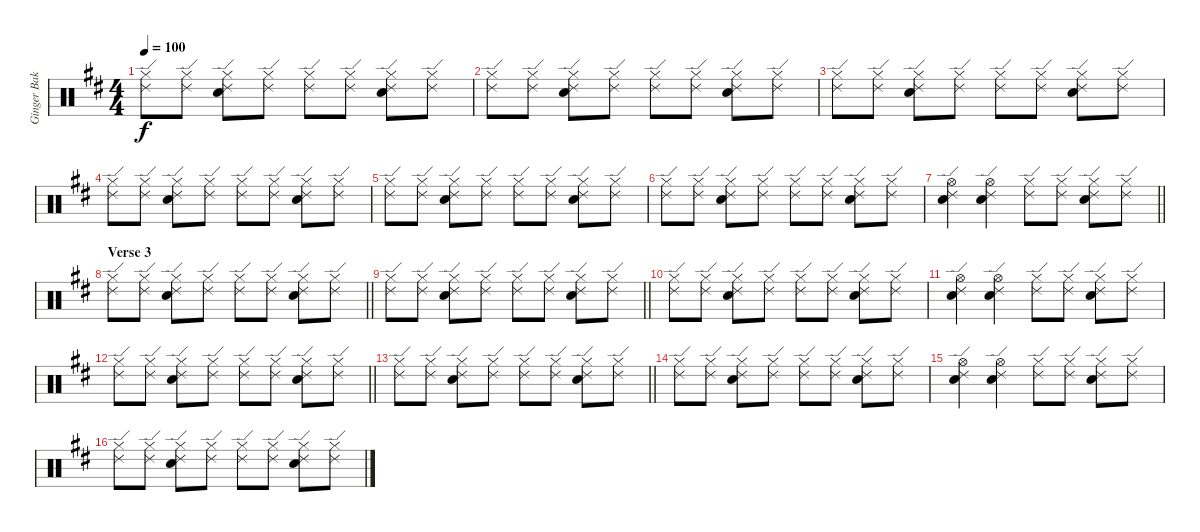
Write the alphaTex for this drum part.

\track ("Ginger Baker" "Ginger Bak") {instrument percussion}
\staff {score}
\articulation defaults
\ts (4 4)
\tempo 100
\clef neutral
\ks d
("Hi-Hat (closed)" "Ride (edge) 2").8{dy f} ("Hi-Hat (closed)" "Ride (edge) 2").8 ("Hi-Hat (closed)" "Ride (edge) 2" "Electric Snare (hit)").8 ("Hi-Hat (closed)" "Ride (edge) 2").8 ("Hi-Hat (closed)" "Ride (edge) 2").8 ("Hi-Hat (closed)" "Ride (edge) 2").8 ("Hi-Hat (closed)" "Ride (edge) 2" "Electric Snare (hit)").8 ("Hi-Hat (closed)" "Ride (edge) 2").8 |
("Hi-Hat (closed)" "Ride (edge) 2").8 ("Hi-Hat (closed)" "Ride (edge) 2").8 ("Hi-Hat (closed)" "Ride (edge) 2" "Electric Snare (hit)").8 ("Hi-Hat (closed)" "Ride (edge) 2").8 ("Hi-Hat (closed)" "Ride (edge) 2").8 ("Hi-Hat (closed)" "Ride (edge) 2").8 ("Hi-Hat (closed)" "Ride (edge) 2" "Electric Snare (hit)").8 ("Hi-Hat (closed)" "Ride (edge) 2").8 |
("Hi-Hat (closed)" "Ride (edge) 2").8 ("Hi-Hat (closed)" "Ride (edge) 2").8 ("Hi-Hat (closed)" "Ride (edge) 2" "Electric Snare (hit)").8 ("Hi-Hat (closed)" "Ride (edge) 2").8 ("Hi-Hat (closed)" "Ride (edge) 2").8 ("Hi-Hat (closed)" "Ride (edge) 2").8 ("Hi-Hat (closed)" "Ride (edge) 2" "Electric Snare (hit)").8 ("Hi-Hat (closed)" "Ride (edge) 2").8 |
("Hi-Hat (closed)" "Ride (edge) 2").8 ("Hi-Hat (closed)" "Ride (edge) 2").8 ("Hi-Hat (closed)" "Ride (edge) 2" "Electric Snare (hit)").8 ("Hi-Hat (closed)" "Ride (edge) 2").8 ("Hi-Hat (closed)" "Ride (edge) 2").8 ("Hi-Hat (closed)" "Ride (edge) 2").8 ("Hi-Hat (closed)" "Ride (edge) 2" "Electric Snare (hit)").8 ("Hi-Hat (closed)" "Ride (edge) 2").8 |
("Hi-Hat (closed)" "Ride (edge) 2").8 ("Hi-Hat (closed)" "Ride (edge) 2").8 ("Hi-Hat (closed)" "Ride (edge) 2" "Electric Snare (hit)").8 ("Hi-Hat (closed)" "Ride (edge) 2").8 ("Hi-Hat (closed)" "Ride (edge) 2").8 ("Hi-Hat (closed)" "Ride (edge) 2").8 ("Hi-Hat (closed)" "Ride (edge) 2" "Electric Snare (hit)").8 ("Hi-Hat (closed)" "Ride (edge) 2").8 |
("Hi-Hat (closed)" "Ride (edge) 2").8 ("Hi-Hat (closed)" "Ride (edge) 2").8 ("Hi-Hat (closed)" "Ride (edge) 2" "Electric Snare (hit)").8 ("Hi-Hat (closed)" "Ride (edge) 2").8 ("Hi-Hat (closed)" "Ride (edge) 2").8 ("Hi-Hat (closed)" "Ride (edge) 2").8 ("Hi-Hat (closed)" "Ride (edge) 2" "Electric Snare (hit)").8 ("Hi-Hat (closed)" "Ride (edge) 2").8 |
\barLineRight lightlight
("Hi-Hat (open)" "Ride (edge) 2" "Electric Snare (hit)").4 ("Hi-Hat (open)" "Ride (edge) 2" "Electric Snare (hit)").4 ("Hi-Hat (closed)" "Ride (edge) 2").8 ("Hi-Hat (closed)" "Ride (edge) 2").8 ("Hi-Hat (closed)" "Ride (edge) 2" "Electric Snare (hit)").8 ("Hi-Hat (closed)" "Ride (edge) 2").8 |
\section ("" "Verse 3")
\barLineRight lightlight
("Hi-Hat (closed)" "Ride (edge) 2").8 ("Hi-Hat (closed)" "Ride (edge) 2").8 ("Hi-Hat (closed)" "Ride (edge) 2" "Electric Snare (hit)").8 ("Hi-Hat (closed)" "Ride (edge) 2").8 ("Hi-Hat (closed)" "Ride (edge) 2").8 ("Hi-Hat (closed)" "Ride (edge) 2").8 ("Hi-Hat (closed)" "Ride (edge) 2" "Electric Snare (hit)").8 ("Hi-Hat (closed)" "Ride (edge) 2").8 |
\barLineRight lightlight
("Hi-Hat (closed)" "Ride (edge) 2").8 ("Hi-Hat (closed)" "Ride (edge) 2").8 ("Hi-Hat (closed)" "Ride (edge) 2" "Electric Snare (hit)").8 ("Hi-Hat (closed)" "Ride (edge) 2").8 ("Hi-Hat (closed)" "Ride (edge) 2").8 ("Hi-Hat (closed)" "Ride (edge) 2").8 ("Hi-Hat (closed)" "Ride (edge) 2" "Electric Snare (hit)").8 ("Hi-Hat (closed)" "Ride (edge) 2").8 |
("Hi-Hat (closed)" "Ride (edge) 2").8 ("Hi-Hat (closed)" "Ride (edge) 2").8 ("Hi-Hat (closed)" "Ride (edge) 2" "Electric Snare (hit)").8 ("Hi-Hat (closed)" "Ride (edge) 2").8 ("Hi-Hat (closed)" "Ride (edge) 2").8 ("Hi-Hat (closed)" "Ride (edge) 2").8 ("Hi-Hat (closed)" "Ride (edge) 2" "Electric Snare (hit)").8 ("Hi-Hat (closed)" "Ride (edge) 2").8 |
("Hi-Hat (open)" "Ride (edge) 2" "Electric Snare (hit)").4 ("Hi-Hat (open)" "Ride (edge) 2" "Electric Snare (hit)").4 ("Hi-Hat (closed)" "Ride (edge) 2").8 ("Hi-Hat (closed)" "Ride (edge) 2").8 ("Hi-Hat (closed)" "Ride (edge) 2" "Electric Snare (hit)").8 ("Hi-Hat (closed)" "Ride (edge) 2").8 |
\barLineRight lightlight
("Hi-Hat (closed)" "Ride (edge) 2").8 ("Hi-Hat (closed)" "Ride (edge) 2").8 ("Hi-Hat (closed)" "Ride (edge) 2" "Electric Snare (hit)").8 ("Hi-Hat (closed)" "Ride (edge) 2").8 ("Hi-Hat (closed)" "Ride (edge) 2").8 ("Hi-Hat (closed)" "Ride (edge) 2").8 ("Hi-Hat (closed)" "Ride (edge) 2" "Electric Snare (hit)").8 ("Hi-Hat (closed)" "Ride (edge) 2").8 |
\barLineRight lightlight
("Hi-Hat (closed)" "Ride (edge) 2").8 ("Hi-Hat (closed)" "Ride (edge) 2").8 ("Hi-Hat (closed)" "Ride (edge) 2" "Electric Snare (hit)").8 ("Hi-Hat (closed)" "Ride (edge) 2").8 ("Hi-Hat (closed)" "Ride (edge) 2").8 ("Hi-Hat (closed)" "Ride (edge) 2").8 ("Hi-Hat (closed)" "Ride (edge) 2" "Electric Snare (hit)").8 ("Hi-Hat (closed)" "Ride (edge) 2").8 |
("Hi-Hat (closed)" "Ride (edge) 2").8 ("Hi-Hat (closed)" "Ride (edge) 2").8 ("Hi-Hat (closed)" "Ride (edge) 2" "Electric Snare (hit)").8 ("Hi-Hat (closed)" "Ride (edge) 2").8 ("Hi-Hat (closed)" "Ride (edge) 2").8 ("Hi-Hat (closed)" "Ride (edge) 2").8 ("Hi-Hat (closed)" "Ride (edge) 2" "Electric Snare (hit)").8 ("Hi-Hat (closed)" "Ride (edge) 2").8 |
("Hi-Hat (open)" "Ride (edge) 2" "Electric Snare (hit)").4 ("Hi-Hat (open)" "Ride (edge) 2" "Electric Snare (hit)").4 ("Hi-Hat (closed)" "Ride (edge) 2").8 ("Hi-Hat (closed)" "Ride (edge) 2").8 ("Hi-Hat (closed)" "Ride (edge) 2" "Electric Snare (hit)").8 ("Hi-Hat (closed)" "Ride (edge) 2").8 |
("Hi-Hat (closed)" "Ride (edge) 2").8 ("Hi-Hat (closed)" "Ride (edge) 2").8 ("Hi-Hat (closed)" "Ride (edge) 2" "Electric Snare (hit)").8 ("Hi-Hat (closed)" "Ride (edge) 2").8 ("Hi-Hat (closed)" "Ride (edge) 2").8 ("Hi-Hat (closed)" "Ride (edge) 2").8 ("Hi-Hat (closed)" "Ride (edge) 2" "Electric Snare (hit)").8 ("Hi-Hat (closed)" "Ride (edge) 2").8
